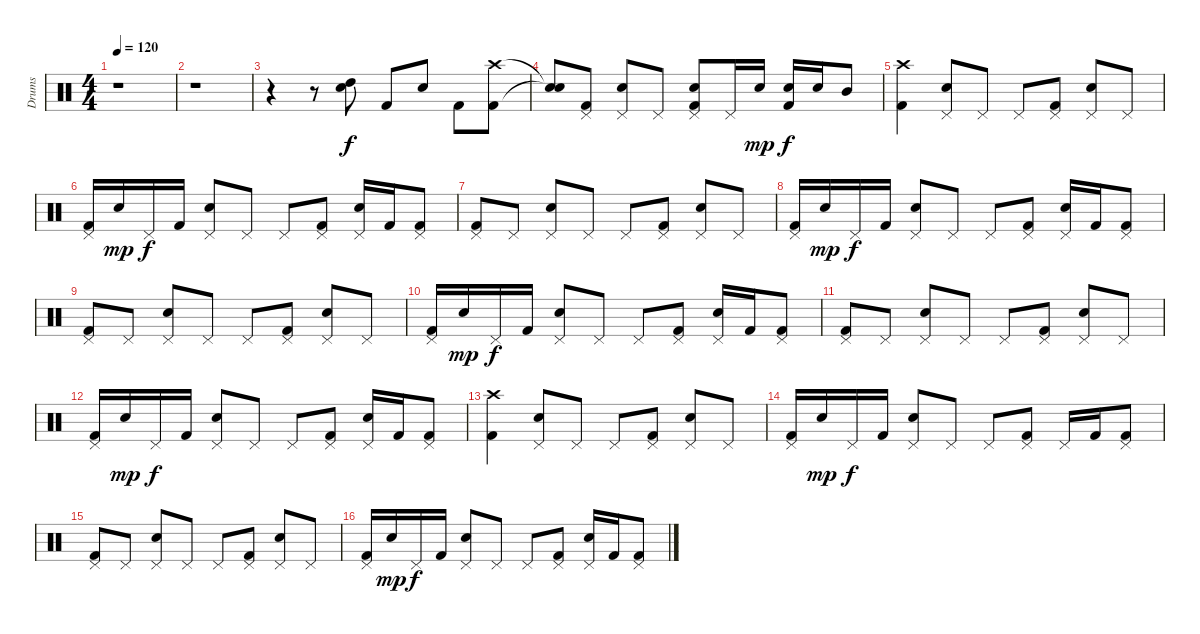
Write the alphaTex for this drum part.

\track ("Drums" "Drums") {instrument percussion}
\staff {score}
\articulation defaults
\ts (4 4)
\tempo 120
\clef neutral
\ks c
r.1{dy f} |
r.1 |
r.4 r.8 ("Electric Snare (hit)" "High Tom (hit)").8 "Kick (hit) 2".8 "Electric Snare (hit)".8 "Kick (hit) 2".8 ("Crash high (hit)" "Kick (hit) 2").8 |
("Snare (hit)"{t} "Snare (hit)"{t}).8 ("Pedal Hi-Hat (hit)" "Kick (hit) 2").8 ("Pedal Hi-Hat (hit)" "Electric Snare (hit)").8 "Pedal Hi-Hat (hit)".8 ("Pedal Hi-Hat (hit)" "Electric Snare (hit)" "Kick (hit) 2").8 "Pedal Hi-Hat (hit)".16 "Electric Snare (hit)".16{dy mp} ("Electric Snare (hit)" "Kick (hit) 2").16{dy f} "Electric Snare (hit)".16 "Mid Tom (hit)".8 |
("Crash high (hit)" "Kick (hit) 2").4 ("Pedal Hi-Hat (hit)" "Electric Snare (hit)").8 "Pedal Hi-Hat (hit)".8 "Pedal Hi-Hat (hit)".8 ("Pedal Hi-Hat (hit)" "Kick (hit) 2").8 ("Pedal Hi-Hat (hit)" "Electric Snare (hit)").8 "Pedal Hi-Hat (hit)".8 |
("Pedal Hi-Hat (hit)" "Kick (hit) 2").16 "Electric Snare (hit)".16{dy mp} "Pedal Hi-Hat (hit)".16{dy f} "Kick (hit) 2".16 ("Pedal Hi-Hat (hit)" "Electric Snare (hit)").8 "Pedal Hi-Hat (hit)".8 "Pedal Hi-Hat (hit)".8 ("Pedal Hi-Hat (hit)" "Kick (hit) 2").8 ("Pedal Hi-Hat (hit)" "Electric Snare (hit)").16 "Kick (hit) 2".16 ("Pedal Hi-Hat (hit)" "Kick (hit) 2").8 |
("Pedal Hi-Hat (hit)" "Kick (hit) 2").8 "Pedal Hi-Hat (hit)".8 ("Pedal Hi-Hat (hit)" "Electric Snare (hit)").8 "Pedal Hi-Hat (hit)".8 "Pedal Hi-Hat (hit)".8 ("Pedal Hi-Hat (hit)" "Kick (hit) 2").8 ("Pedal Hi-Hat (hit)" "Electric Snare (hit)").8 "Pedal Hi-Hat (hit)".8 |
("Pedal Hi-Hat (hit)" "Kick (hit) 2").16 "Electric Snare (hit)".16{dy mp} "Pedal Hi-Hat (hit)".16{dy f} "Kick (hit) 2".16 ("Pedal Hi-Hat (hit)" "Electric Snare (hit)").8 "Pedal Hi-Hat (hit)".8 "Pedal Hi-Hat (hit)".8 ("Pedal Hi-Hat (hit)" "Kick (hit) 2").8 ("Pedal Hi-Hat (hit)" "Electric Snare (hit)").16 "Kick (hit) 2".16 ("Pedal Hi-Hat (hit)" "Kick (hit) 2").8 |
("Pedal Hi-Hat (hit)" "Kick (hit) 2").8 "Pedal Hi-Hat (hit)".8 ("Pedal Hi-Hat (hit)" "Electric Snare (hit)").8 "Pedal Hi-Hat (hit)".8 "Pedal Hi-Hat (hit)".8 ("Pedal Hi-Hat (hit)" "Kick (hit) 2").8 ("Pedal Hi-Hat (hit)" "Electric Snare (hit)").8 "Pedal Hi-Hat (hit)".8 |
("Pedal Hi-Hat (hit)" "Kick (hit) 2").16 "Electric Snare (hit)".16{dy mp} "Pedal Hi-Hat (hit)".16{dy f} "Kick (hit) 2".16 ("Pedal Hi-Hat (hit)" "Electric Snare (hit)").8 "Pedal Hi-Hat (hit)".8 "Pedal Hi-Hat (hit)".8 ("Pedal Hi-Hat (hit)" "Kick (hit) 2").8 ("Pedal Hi-Hat (hit)" "Electric Snare (hit)").16 "Kick (hit) 2".16 ("Pedal Hi-Hat (hit)" "Kick (hit) 2").8 |
("Pedal Hi-Hat (hit)" "Kick (hit) 2").8 "Pedal Hi-Hat (hit)".8 ("Pedal Hi-Hat (hit)" "Electric Snare (hit)").8 "Pedal Hi-Hat (hit)".8 "Pedal Hi-Hat (hit)".8 ("Pedal Hi-Hat (hit)" "Kick (hit) 2").8 ("Pedal Hi-Hat (hit)" "Electric Snare (hit)").8 "Pedal Hi-Hat (hit)".8 |
("Pedal Hi-Hat (hit)" "Kick (hit) 2").16 "Electric Snare (hit)".16{dy mp} "Pedal Hi-Hat (hit)".16{dy f} "Kick (hit) 2".16 ("Pedal Hi-Hat (hit)" "Electric Snare (hit)").8 "Pedal Hi-Hat (hit)".8 "Pedal Hi-Hat (hit)".8 ("Pedal Hi-Hat (hit)" "Kick (hit) 2").8 ("Pedal Hi-Hat (hit)" "Electric Snare (hit)").16 "Kick (hit) 2".16 ("Pedal Hi-Hat (hit)" "Kick (hit) 2").8 |
("Crash high (hit)" "Kick (hit) 2").4 ("Pedal Hi-Hat (hit)" "Electric Snare (hit)").8 "Pedal Hi-Hat (hit)".8 "Pedal Hi-Hat (hit)".8 ("Pedal Hi-Hat (hit)" "Kick (hit) 2").8 ("Pedal Hi-Hat (hit)" "Electric Snare (hit)").8 "Pedal Hi-Hat (hit)".8 |
("Pedal Hi-Hat (hit)" "Kick (hit) 2").16 "Electric Snare (hit)".16{dy mp} "Pedal Hi-Hat (hit)".16{dy f} "Kick (hit) 2".16 ("Pedal Hi-Hat (hit)" "Electric Snare (hit)").8 "Pedal Hi-Hat (hit)".8 "Pedal Hi-Hat (hit)".8 ("Pedal Hi-Hat (hit)" "Kick (hit) 2").8 "Pedal Hi-Hat (hit)".16 "Kick (hit) 2".16 ("Pedal Hi-Hat (hit)" "Kick (hit) 2").8 |
("Pedal Hi-Hat (hit)" "Kick (hit) 2").8 "Pedal Hi-Hat (hit)".8 ("Pedal Hi-Hat (hit)" "Electric Snare (hit)").8 "Pedal Hi-Hat (hit)".8 "Pedal Hi-Hat (hit)".8 ("Pedal Hi-Hat (hit)" "Kick (hit) 2").8 ("Pedal Hi-Hat (hit)" "Electric Snare (hit)").8 "Pedal Hi-Hat (hit)".8 |
("Pedal Hi-Hat (hit)" "Kick (hit) 2").16 "Electric Snare (hit)".16{dy mp} "Pedal Hi-Hat (hit)".16{dy f} "Kick (hit) 2".16 ("Pedal Hi-Hat (hit)" "Electric Snare (hit)").8 "Pedal Hi-Hat (hit)".8 "Pedal Hi-Hat (hit)".8 ("Pedal Hi-Hat (hit)" "Kick (hit) 2").8 ("Pedal Hi-Hat (hit)" "Electric Snare (hit)").16 "Kick (hit) 2".16 ("Pedal Hi-Hat (hit)" "Kick (hit) 2").8
